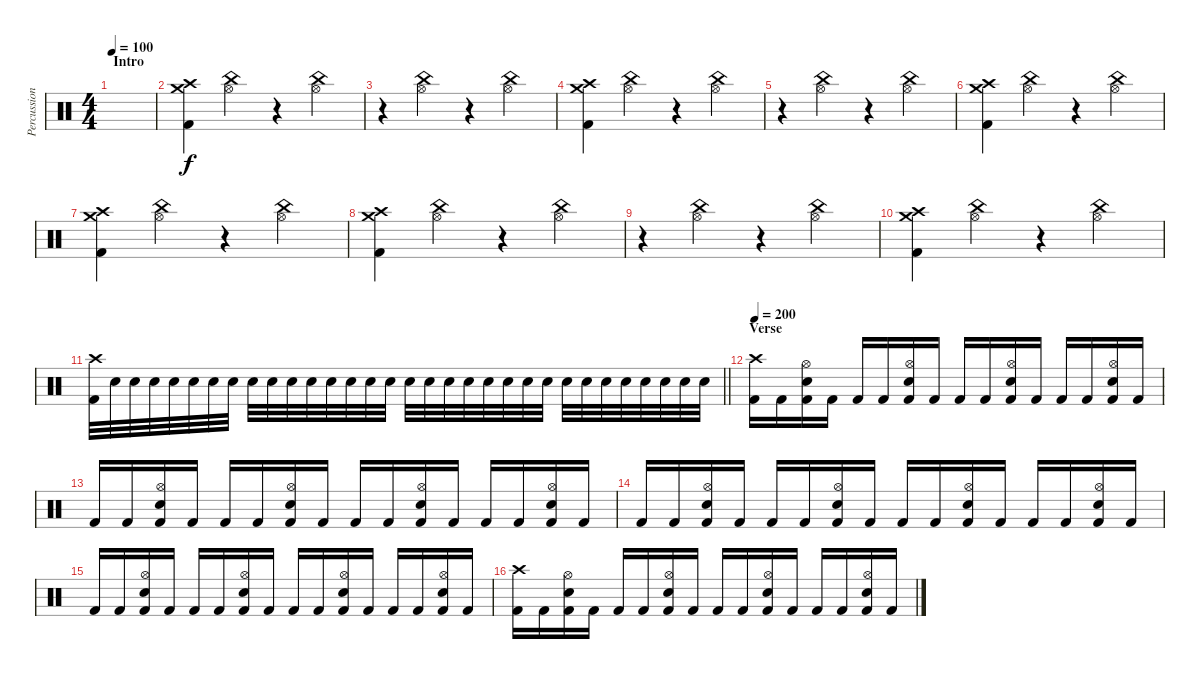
\track ("Percussion" "Percussion") {instrument percussion}
\staff {score}
\articulation defaults
\ts (4 4)
\section ("" "Intro")
\tempo 100
\clef neutral
\ks c
|
("Crash high (hit)" "Crash medium (hit)" "Kick (hit) 2").4 ("China (hit)" "Hi-Hat (open)").4 r.4 ("China (hit)" "Hi-Hat (open)").4 |
r.4 ("China (hit)" "Hi-Hat (open)").4 r.4 ("China (hit)" "Hi-Hat (open)").4 |
("Crash high (hit)" "Crash medium (hit)" "Kick (hit) 2").4 ("China (hit)" "Hi-Hat (open)").4 r.4 ("China (hit)" "Hi-Hat (open)").4 |
r.4 ("China (hit)" "Hi-Hat (open)").4 r.4 ("China (hit)" "Hi-Hat (open)").4 |
("Crash high (hit)" "Crash medium (hit)" "Kick (hit) 2").4 ("China (hit)" "Hi-Hat (open)").4 r.4 ("China (hit)" "Hi-Hat (open)").4 |
("Crash high (hit)" "Crash medium (hit)" "Kick (hit) 2").4 ("China (hit)" "Hi-Hat (open)").4 r.4 ("China (hit)" "Hi-Hat (open)").4 |
("Crash high (hit)" "Crash medium (hit)" "Kick (hit) 2").4 ("China (hit)" "Hi-Hat (open)").4 r.4 ("China (hit)" "Hi-Hat (open)").4 |
r.4 ("China (hit)" "Hi-Hat (open)").4 r.4 ("China (hit)" "Hi-Hat (open)").4 |
("Crash high (hit)" "Crash medium (hit)" "Kick (hit) 2").4 ("China (hit)" "Hi-Hat (open)").4 r.4 ("China (hit)" "Hi-Hat (open)").4 |
\barLineRight lightlight
("Crash high (hit)" "Kick (hit) 2").32 "Electric Snare (hit)".32 "Electric Snare (hit)".32 "Electric Snare (hit)".32 "Electric Snare (hit)".32 "Electric Snare (hit)".32 "Electric Snare (hit)".32 "Electric Snare (hit)".32 "Electric Snare (hit)".32 "Electric Snare (hit)".32 "Electric Snare (hit)".32 "Electric Snare (hit)".32 "Electric Snare (hit)".32 "Electric Snare (hit)".32 "Electric Snare (hit)".32 "Electric Snare (hit)".32 "Electric Snare (hit)".32 "Electric Snare (hit)".32 "Electric Snare (hit)".32 "Electric Snare (hit)".32 "Electric Snare (hit)".32 "Electric Snare (hit)".32 "Electric Snare (hit)".32 "Electric Snare (hit)".32 "Electric Snare (hit)".32 "Electric Snare (hit)".32 "Electric Snare (hit)".32 "Electric Snare (hit)".32 "Electric Snare (hit)".32 "Electric Snare (hit)".32 "Electric Snare (hit)".32 "Electric Snare (hit)".32 |
\section ("" "Verse")
\tempo 200
("Crash high (hit)" "Kick (hit) 2").16 "Kick (hit) 2".16 ("Hi-Hat (open)" "Electric Snare (hit)" "Kick (hit) 2").16 "Kick (hit) 2".16 "Kick (hit) 2".16 "Kick (hit) 2".16 ("Hi-Hat (open)" "Electric Snare (hit)" "Kick (hit) 2").16 "Kick (hit) 2".16 "Kick (hit) 2".16 "Kick (hit) 2".16 ("Hi-Hat (open)" "Electric Snare (hit)" "Kick (hit) 2").16 "Kick (hit) 2".16 "Kick (hit) 2".16 "Kick (hit) 2".16 ("Hi-Hat (open)" "Electric Snare (hit)" "Kick (hit) 2").16 "Kick (hit) 2".16 |
"Kick (hit) 2".16 "Kick (hit) 2".16 ("Hi-Hat (open)" "Electric Snare (hit)" "Kick (hit) 2").16 "Kick (hit) 2".16 "Kick (hit) 2".16 "Kick (hit) 2".16 ("Hi-Hat (open)" "Electric Snare (hit)" "Kick (hit) 2").16 "Kick (hit) 2".16 "Kick (hit) 2".16 "Kick (hit) 2".16 ("Hi-Hat (open)" "Electric Snare (hit)" "Kick (hit) 2").16 "Kick (hit) 2".16 "Kick (hit) 2".16 "Kick (hit) 2".16 ("Hi-Hat (open)" "Electric Snare (hit)" "Kick (hit) 2").16 "Kick (hit) 2".16 |
"Kick (hit) 2".16 "Kick (hit) 2".16 ("Hi-Hat (open)" "Electric Snare (hit)" "Kick (hit) 2").16 "Kick (hit) 2".16 "Kick (hit) 2".16 "Kick (hit) 2".16 ("Hi-Hat (open)" "Electric Snare (hit)" "Kick (hit) 2").16 "Kick (hit) 2".16 "Kick (hit) 2".16 "Kick (hit) 2".16 ("Hi-Hat (open)" "Electric Snare (hit)" "Kick (hit) 2").16 "Kick (hit) 2".16 "Kick (hit) 2".16 "Kick (hit) 2".16 ("Hi-Hat (open)" "Electric Snare (hit)" "Kick (hit) 2").16 "Kick (hit) 2".16 |
"Kick (hit) 2".16 "Kick (hit) 2".16 ("Hi-Hat (open)" "Electric Snare (hit)" "Kick (hit) 2").16 "Kick (hit) 2".16 "Kick (hit) 2".16 "Kick (hit) 2".16 ("Hi-Hat (open)" "Electric Snare (hit)" "Kick (hit) 2").16 "Kick (hit) 2".16 "Kick (hit) 2".16 "Kick (hit) 2".16 ("Hi-Hat (open)" "Electric Snare (hit)" "Kick (hit) 2").16 "Kick (hit) 2".16 "Kick (hit) 2".16 "Kick (hit) 2".16 ("Hi-Hat (open)" "Electric Snare (hit)" "Kick (hit) 2").16 "Kick (hit) 2".16 |
("Crash high (hit)" "Kick (hit) 2").16 "Kick (hit) 2".16 ("Hi-Hat (open)" "Electric Snare (hit)" "Kick (hit) 2").16 "Kick (hit) 2".16 "Kick (hit) 2".16 "Kick (hit) 2".16 ("Hi-Hat (open)" "Electric Snare (hit)" "Kick (hit) 2").16 "Kick (hit) 2".16 "Kick (hit) 2".16 "Kick (hit) 2".16 ("Hi-Hat (open)" "Electric Snare (hit)" "Kick (hit) 2").16 "Kick (hit) 2".16 "Kick (hit) 2".16 "Kick (hit) 2".16 ("Hi-Hat (open)" "Electric Snare (hit)" "Kick (hit) 2").16 "Kick (hit) 2".16
